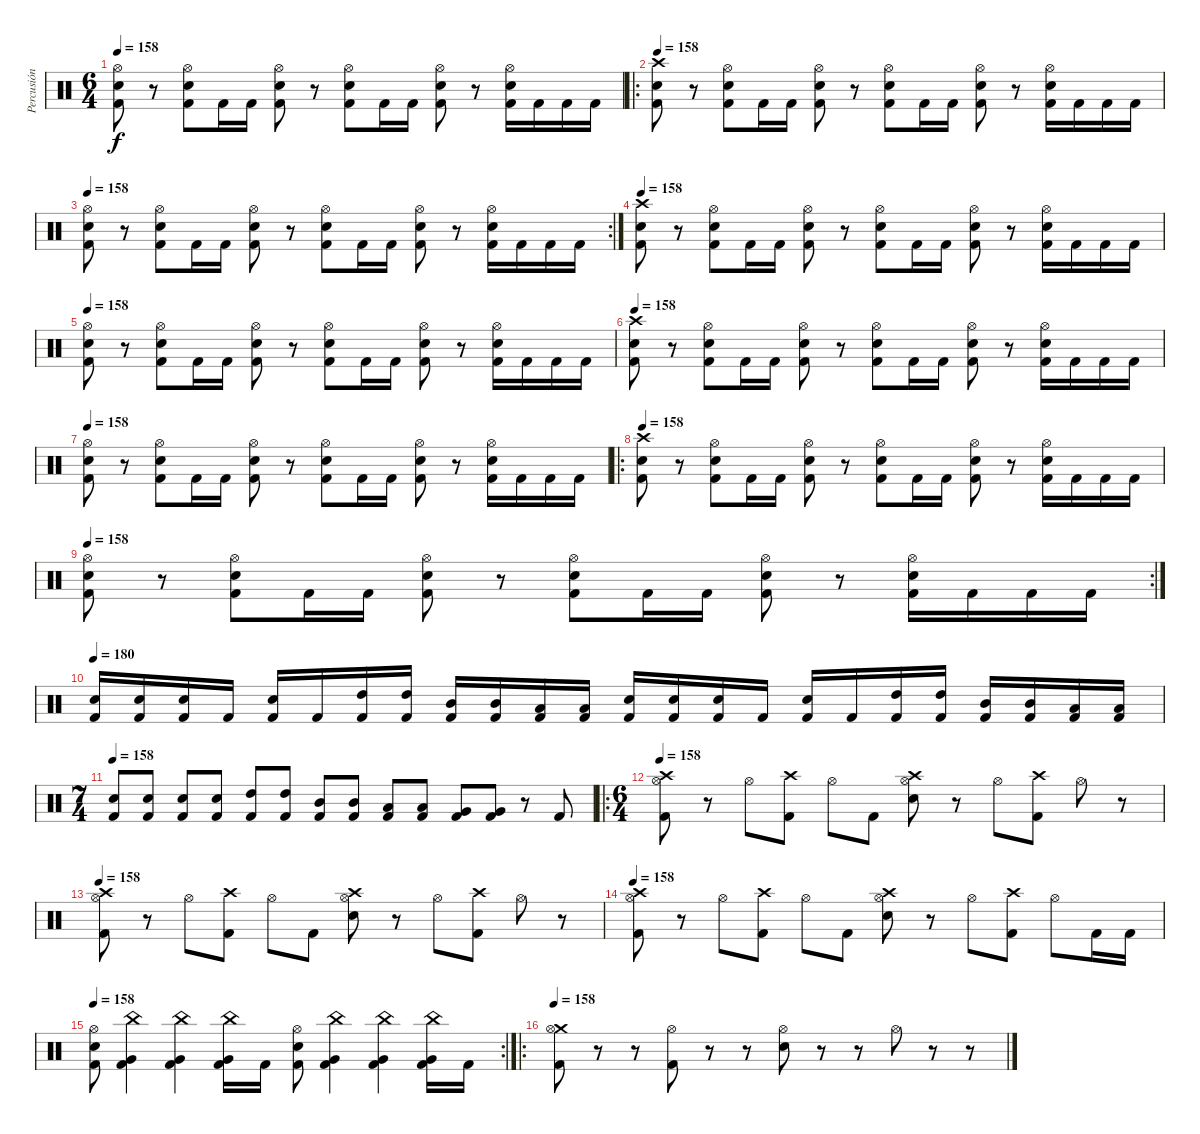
\track ("Percusión" "Percusión") {instrument percussion}
\staff {score}
\articulation defaults
\ts (6 4)
\tempo 158
\clef neutral
\ks c
("Hi-Hat (open)" "Electric Snare (hit)" "Kick (hit) 2").8{dy f} r.8 ("Hi-Hat (open)" "Electric Snare (hit)" "Kick (hit) 2").8 "Kick (hit) 2".16 "Kick (hit) 2".16 ("Hi-Hat (open)" "Electric Snare (hit)" "Kick (hit) 2").8 r.8 ("Hi-Hat (open)" "Electric Snare (hit)" "Kick (hit) 2").8 "Kick (hit) 2".16 "Kick (hit) 2".16 ("Hi-Hat (open)" "Electric Snare (hit)" "Kick (hit) 2").8 r.8 ("Hi-Hat (open)" "Electric Snare (hit)" "Kick (hit) 2").16 "Kick (hit) 2".16 "Kick (hit) 2".16 "Kick (hit) 2".16 |
\ro
\tempo 158
("Crash high (hit)" "Electric Snare (hit)" "Kick (hit) 2").8 r.8 ("Hi-Hat (open)" "Electric Snare (hit)" "Kick (hit) 2").8 "Kick (hit) 2".16 "Kick (hit) 2".16 ("Hi-Hat (open)" "Electric Snare (hit)" "Kick (hit) 2").8 r.8 ("Hi-Hat (open)" "Electric Snare (hit)" "Kick (hit) 2").8 "Kick (hit) 2".16 "Kick (hit) 2".16 ("Hi-Hat (open)" "Electric Snare (hit)" "Kick (hit) 2").8 r.8 ("Hi-Hat (open)" "Electric Snare (hit)" "Kick (hit) 2").16 "Kick (hit) 2".16 "Kick (hit) 2".16 "Kick (hit) 2".16 |
\rc 2
\tempo 158
("Hi-Hat (open)" "Electric Snare (hit)" "Kick (hit) 2").8 r.8 ("Hi-Hat (open)" "Electric Snare (hit)" "Kick (hit) 2").8 "Kick (hit) 2".16 "Kick (hit) 2".16 ("Hi-Hat (open)" "Electric Snare (hit)" "Kick (hit) 2").8 r.8 ("Hi-Hat (open)" "Electric Snare (hit)" "Kick (hit) 2").8 "Kick (hit) 2".16 "Kick (hit) 2".16 ("Hi-Hat (open)" "Electric Snare (hit)" "Kick (hit) 2").8 r.8 ("Hi-Hat (open)" "Electric Snare (hit)" "Kick (hit) 2").16 "Kick (hit) 2".16 "Kick (hit) 2".16 "Kick (hit) 2".16 |
\tempo 158
("Crash high (hit)" "Electric Snare (hit)" "Kick (hit) 2").8 r.8 ("Hi-Hat (open)" "Electric Snare (hit)" "Kick (hit) 2").8 "Kick (hit) 2".16 "Kick (hit) 2".16 ("Hi-Hat (open)" "Electric Snare (hit)" "Kick (hit) 2").8 r.8 ("Hi-Hat (open)" "Electric Snare (hit)" "Kick (hit) 2").8 "Kick (hit) 2".16 "Kick (hit) 2".16 ("Hi-Hat (open)" "Electric Snare (hit)" "Kick (hit) 2").8 r.8 ("Hi-Hat (open)" "Electric Snare (hit)" "Kick (hit) 2").16 "Kick (hit) 2".16 "Kick (hit) 2".16 "Kick (hit) 2".16 |
\tempo 158
("Hi-Hat (open)" "Electric Snare (hit)" "Kick (hit) 2").8 r.8 ("Hi-Hat (open)" "Electric Snare (hit)" "Kick (hit) 2").8 "Kick (hit) 2".16 "Kick (hit) 2".16 ("Hi-Hat (open)" "Electric Snare (hit)" "Kick (hit) 2").8 r.8 ("Hi-Hat (open)" "Electric Snare (hit)" "Kick (hit) 2").8 "Kick (hit) 2".16 "Kick (hit) 2".16 ("Hi-Hat (open)" "Electric Snare (hit)" "Kick (hit) 2").8 r.8 ("Hi-Hat (open)" "Electric Snare (hit)" "Kick (hit) 2").16 "Kick (hit) 2".16 "Kick (hit) 2".16 "Kick (hit) 2".16 |
\tempo 158
("Crash high (hit)" "Electric Snare (hit)" "Kick (hit) 2").8 r.8 ("Hi-Hat (open)" "Electric Snare (hit)" "Kick (hit) 2").8 "Kick (hit) 2".16 "Kick (hit) 2".16 ("Hi-Hat (open)" "Electric Snare (hit)" "Kick (hit) 2").8 r.8 ("Hi-Hat (open)" "Electric Snare (hit)" "Kick (hit) 2").8 "Kick (hit) 2".16 "Kick (hit) 2".16 ("Hi-Hat (open)" "Electric Snare (hit)" "Kick (hit) 2").8 r.8 ("Hi-Hat (open)" "Electric Snare (hit)" "Kick (hit) 2").16 "Kick (hit) 2".16 "Kick (hit) 2".16 "Kick (hit) 2".16 |
\tempo 158
("Hi-Hat (open)" "Electric Snare (hit)" "Kick (hit) 2").8 r.8 ("Hi-Hat (open)" "Electric Snare (hit)" "Kick (hit) 2").8 "Kick (hit) 2".16 "Kick (hit) 2".16 ("Hi-Hat (open)" "Electric Snare (hit)" "Kick (hit) 2").8 r.8 ("Hi-Hat (open)" "Electric Snare (hit)" "Kick (hit) 2").8 "Kick (hit) 2".16 "Kick (hit) 2".16 ("Hi-Hat (open)" "Electric Snare (hit)" "Kick (hit) 2").8 r.8 ("Hi-Hat (open)" "Electric Snare (hit)" "Kick (hit) 2").16 "Kick (hit) 2".16 "Kick (hit) 2".16 "Kick (hit) 2".16 |
\ro
\tempo 158
("Crash high (hit)" "Electric Snare (hit)" "Kick (hit) 2").8 r.8 ("Hi-Hat (open)" "Electric Snare (hit)" "Kick (hit) 2").8 "Kick (hit) 2".16 "Kick (hit) 2".16 ("Hi-Hat (open)" "Electric Snare (hit)" "Kick (hit) 2").8 r.8 ("Hi-Hat (open)" "Electric Snare (hit)" "Kick (hit) 2").8 "Kick (hit) 2".16 "Kick (hit) 2".16 ("Hi-Hat (open)" "Electric Snare (hit)" "Kick (hit) 2").8 r.8 ("Hi-Hat (open)" "Electric Snare (hit)" "Kick (hit) 2").16 "Kick (hit) 2".16 "Kick (hit) 2".16 "Kick (hit) 2".16 |
\rc 2
\tempo 158
("Hi-Hat (open)" "Electric Snare (hit)" "Kick (hit) 2").8 r.8 ("Hi-Hat (open)" "Electric Snare (hit)" "Kick (hit) 2").8 "Kick (hit) 2".16 "Kick (hit) 2".16 ("Hi-Hat (open)" "Electric Snare (hit)" "Kick (hit) 2").8 r.8 ("Hi-Hat (open)" "Electric Snare (hit)" "Kick (hit) 2").8 "Kick (hit) 2".16 "Kick (hit) 2".16 ("Hi-Hat (open)" "Electric Snare (hit)" "Kick (hit) 2").8 r.8 ("Hi-Hat (open)" "Electric Snare (hit)" "Kick (hit) 2").16 "Kick (hit) 2".16 "Kick (hit) 2".16 "Kick (hit) 2".16 |
\tempo 180
("Electric Snare (hit)" "Kick (hit) 2").16 ("Electric Snare (hit)" "Kick (hit) 2").16 ("Electric Snare (hit)" "Kick (hit) 2").16 "Kick (hit) 2".16 ("Electric Snare (hit)" "Kick (hit) 2").16 "Kick (hit) 2".16 ("High Tom (hit)" "Kick (hit) 2").16 ("High Tom (hit)" "Kick (hit) 2").16 ("Mid Tom (hit)" "Kick (hit) 2").16 ("Mid Tom (hit)" "Kick (hit) 2").16 ("Low Tom (hit)" "Kick (hit) 2").16 ("Low Tom (hit)" "Kick (hit) 2").16 ("Electric Snare (hit)" "Kick (hit) 2").16 ("Electric Snare (hit)" "Kick (hit) 2").16 ("Electric Snare (hit)" "Kick (hit) 2").16 "Kick (hit) 2".16 ("Electric Snare (hit)" "Kick (hit) 2").16 "Kick (hit) 2".16 ("High Tom (hit)" "Kick (hit) 2").16 ("High Tom (hit)" "Kick (hit) 2").16 ("Mid Tom (hit)" "Kick (hit) 2").16 ("Mid Tom (hit)" "Kick (hit) 2").16 ("Low Tom (hit)" "Kick (hit) 2").16 ("Low Tom (hit)" "Kick (hit) 2").16 |
\ts (7 4)
\tempo 158
("Electric Snare (hit)" "Kick (hit) 2").8 ("Electric Snare (hit)" "Kick (hit) 2").8 ("Electric Snare (hit)" "Kick (hit) 2").8 ("Electric Snare (hit)" "Kick (hit) 2").8 ("High Tom (hit)" "Kick (hit) 2").8 ("High Tom (hit)" "Kick (hit) 2").8 ("Mid Tom (hit)" "Kick (hit) 2").8 ("Mid Tom (hit)" "Kick (hit) 2").8 ("Low Tom (hit)" "Kick (hit) 2").8 ("Low Tom (hit)" "Kick (hit) 2").8 ("Very Low Tom (hit)" "Kick (hit) 2").8 ("Very Low Tom (hit)" "Kick (hit) 2").8 r.8 "Kick (hit) 2".8 |
\ro
\ts (6 4)
\tempo 158
("Crash high (hit)" "Hi-Hat (open)" "Kick (hit) 2").8 r.8 "Hi-Hat (open)".8 ("Crash high (hit)" "Kick (hit) 2").8 "Hi-Hat (open)".8 "Kick (hit) 2".8 ("Crash high (hit)" "Hi-Hat (open)" "Electric Snare (hit)").8 r.8 "Hi-Hat (open)".8 ("Crash high (hit)" "Kick (hit) 2").8 "Hi-Hat (open)".8 r.8 |
\tempo 158
("Crash high (hit)" "Hi-Hat (open)" "Kick (hit) 2").8 r.8 "Hi-Hat (open)".8 ("Crash high (hit)" "Kick (hit) 2").8 "Hi-Hat (open)".8 "Kick (hit) 2".8 ("Crash high (hit)" "Hi-Hat (open)" "Electric Snare (hit)").8 r.8 "Hi-Hat (open)".8 ("Crash high (hit)" "Kick (hit) 2").8 "Hi-Hat (open)".8 r.8 |
\tempo 158
("Crash high (hit)" "Hi-Hat (open)" "Kick (hit) 2").8 r.8 "Hi-Hat (open)".8 ("Crash high (hit)" "Kick (hit) 2").8 "Hi-Hat (open)".8 "Kick (hit) 2".8 ("Crash high (hit)" "Hi-Hat (open)" "Electric Snare (hit)").8 r.8 "Hi-Hat (open)".8 ("Crash high (hit)" "Kick (hit) 2").8 "Hi-Hat (open)".8 "Kick (hit) 2".16 "Kick (hit) 2".16 |
\rc 2
\tempo 158
("Hi-Hat (open)" "Electric Snare (hit)" "Kick (hit) 2").8 ("China (hit)" "Very Low Tom (hit)" "Kick (hit) 2").4 ("China (hit)" "Very Low Tom (hit)" "Kick (hit) 2").4 ("China (hit)" "Very Low Tom (hit)" "Kick (hit) 2").16 "Kick (hit) 2".16 ("Hi-Hat (open)" "Electric Snare (hit)" "Kick (hit) 2").8 ("China (hit)" "Very Low Tom (hit)" "Kick (hit) 2").4 ("China (hit)" "Very Low Tom (hit)" "Kick (hit) 2").4 ("China (hit)" "Very Low Tom (hit)" "Kick (hit) 2").16 "Kick (hit) 2".16 |
\ro
\tempo 158
("Crash medium (hit)" "Hi-Hat (open)" "Kick (hit) 2").8 r.8 r.8 ("Hi-Hat (open)" "Kick (hit) 2").8 r.8 r.8 ("Hi-Hat (open)" "Electric Snare (hit)").8 r.8 r.8 "Hi-Hat (open)".8 r.8 r.8
